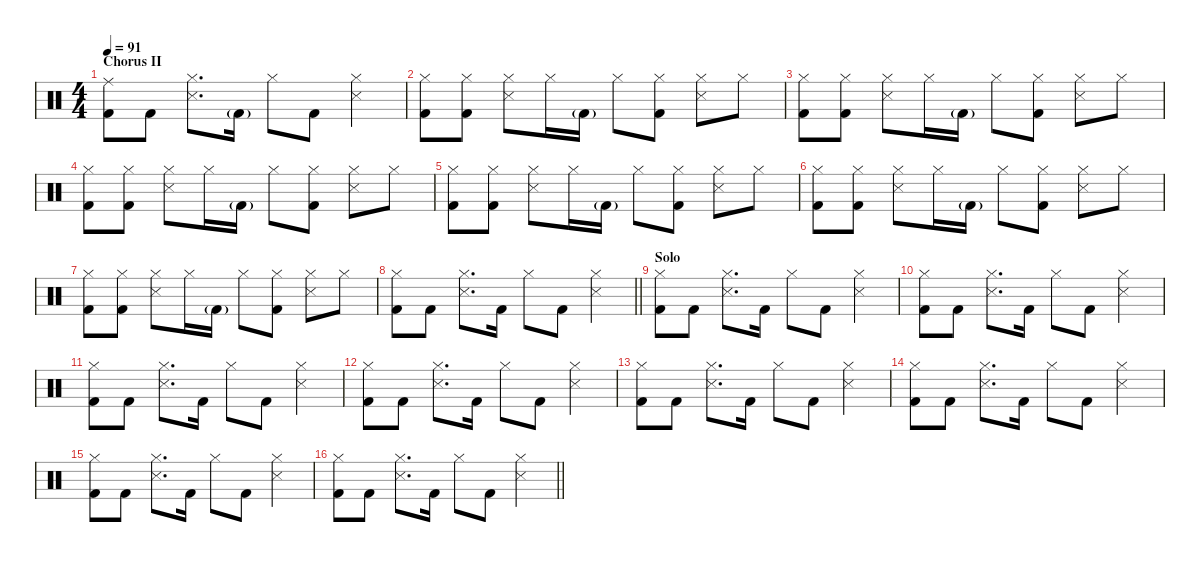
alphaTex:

\defaultSystemsLayout 4
\hideDynamics
\bracketExtendMode nobrackets
\singleTrackTrackNamePolicy hidden
\multiTrackTrackNamePolicy hidden
\otherSystemsTrackNameOrientation horizontal
\track ("Jose Pasillas" "drm.") {defaultSystemsLayout 4 instrument percussion}
\staff {score}
\articulation defaults
\ts (4 4)
\section ("" "Chorus II")
\tempo 91
\clef neutral
\ks c
("Ride (middle)" "Kick (hit) 2").8{dy f beam Down} "Kick (hit) 2".8{beam Down} ("Hi-Hat (closed)" "Snare (side stick) 3").8{d beam Down} "Kick (hit) 2"{g}.16{dy mf beam Down} "Hi-Hat (closed)".8{dy f beam Down} "Kick (hit) 2".8{beam Down} ("Hi-Hat (closed)" "Snare (side stick) 3").4{beam Down} |
("Hi-Hat (closed)" "Kick (hit) 2").8{beam Down} ("Hi-Hat (closed)" "Kick (hit) 2").8{beam Down} ("Hi-Hat (closed)" "Snare (side stick) 3").8{beam Down} "Hi-Hat (closed)".16{beam Down} "Kick (hit) 2"{g}.16{dy mf beam Down} "Hi-Hat (closed)".8{dy f beam Down} ("Hi-Hat (closed)" "Kick (hit) 2").8{beam Down} ("Hi-Hat (closed)" "Snare (side stick) 3").8{beam Down} "Hi-Hat (closed)".8{beam Down} |
("Hi-Hat (closed)" "Kick (hit) 2").8{beam Down} ("Hi-Hat (closed)" "Kick (hit) 2").8{beam Down} ("Hi-Hat (closed)" "Snare (side stick) 3").8{beam Down} "Hi-Hat (closed)".16{beam Down} "Kick (hit) 2"{g}.16{dy mf beam Down} "Hi-Hat (closed)".8{dy f beam Down} ("Hi-Hat (closed)" "Kick (hit) 2").8{beam Down} ("Hi-Hat (closed)" "Snare (side stick) 3").8{beam Down} "Hi-Hat (closed)".8{beam Down} |
("Hi-Hat (closed)" "Kick (hit) 2").8{beam Down} ("Hi-Hat (closed)" "Kick (hit) 2").8{beam Down} ("Hi-Hat (closed)" "Snare (side stick) 3").8{beam Down} "Hi-Hat (closed)".16{beam Down} "Kick (hit) 2"{g}.16{dy mf beam Down} "Hi-Hat (closed)".8{dy f beam Down} ("Hi-Hat (closed)" "Kick (hit) 2").8{beam Down} ("Hi-Hat (closed)" "Snare (side stick) 3").8{beam Down} "Hi-Hat (closed)".8{beam Down} |
("Hi-Hat (closed)" "Kick (hit) 2").8{beam Down} ("Hi-Hat (closed)" "Kick (hit) 2").8{beam Down} ("Hi-Hat (closed)" "Snare (side stick) 3").8{beam Down} "Hi-Hat (closed)".16{beam Down} "Kick (hit) 2"{g}.16{dy mf beam Down} "Hi-Hat (closed)".8{dy f beam Down} ("Hi-Hat (closed)" "Kick (hit) 2").8{beam Down} ("Hi-Hat (closed)" "Snare (side stick) 3").8{beam Down} "Hi-Hat (closed)".8{beam Down} |
("Hi-Hat (closed)" "Kick (hit) 2").8{beam Down} ("Hi-Hat (closed)" "Kick (hit) 2").8{beam Down} ("Hi-Hat (closed)" "Snare (side stick) 3").8{beam Down} "Hi-Hat (closed)".16{beam Down} "Kick (hit) 2"{g}.16{dy mf beam Down} "Hi-Hat (closed)".8{dy f beam Down} ("Hi-Hat (closed)" "Kick (hit) 2").8{beam Down} ("Hi-Hat (closed)" "Snare (side stick) 3").8{beam Down} "Hi-Hat (closed)".8{beam Down} |
("Hi-Hat (closed)" "Kick (hit) 2").8{beam Down} ("Hi-Hat (closed)" "Kick (hit) 2").8{beam Down} ("Hi-Hat (closed)" "Snare (side stick) 3").8{beam Down} "Hi-Hat (closed)".16{beam Down} "Kick (hit) 2"{g}.16{dy mf beam Down} "Hi-Hat (closed)".8{dy f beam Down} ("Hi-Hat (closed)" "Kick (hit) 2").8{beam Down} ("Hi-Hat (closed)" "Snare (side stick) 3").8{beam Down} "Hi-Hat (closed)".8{beam Down} |
\barLineRight lightlight
("Hi-Hat (closed)" "Kick (hit) 2").8{beam Down} "Kick (hit) 2".8{beam Down} ("Hi-Hat (closed)" "Snare (side stick) 3").8{d beam Down} "Kick (hit) 2".16{beam Down} "Hi-Hat (closed)".8{beam Down} "Kick (hit) 2".8{beam Down} ("Hi-Hat (closed)" "Snare (side stick) 3").4{beam Down} |
\section ("" "Solo")
("Hi-Hat (closed)" "Kick (hit) 2").8{beam Down} "Kick (hit) 2".8{beam Down} ("Hi-Hat (closed)" "Snare (side stick) 3").8{d beam Down} "Kick (hit) 2".16{beam Down} "Hi-Hat (closed)".8{beam Down} "Kick (hit) 2".8{beam Down} ("Hi-Hat (closed)" "Snare (side stick) 3").4{beam Down} |
("Hi-Hat (closed)" "Kick (hit) 2").8{beam Down} "Kick (hit) 2".8{beam Down} ("Hi-Hat (closed)" "Snare (side stick) 3").8{d beam Down} "Kick (hit) 2".16{beam Down} "Hi-Hat (closed)".8{beam Down} "Kick (hit) 2".8{beam Down} ("Hi-Hat (closed)" "Snare (side stick) 3").4{beam Down} |
("Hi-Hat (closed)" "Kick (hit) 2").8{beam Down} "Kick (hit) 2".8{beam Down} ("Hi-Hat (closed)" "Snare (side stick) 3").8{d beam Down} "Kick (hit) 2".16{beam Down} "Hi-Hat (closed)".8{beam Down} "Kick (hit) 2".8{beam Down} ("Hi-Hat (closed)" "Snare (side stick) 3").4{beam Down} |
("Hi-Hat (closed)" "Kick (hit) 2").8{beam Down} "Kick (hit) 2".8{beam Down} ("Hi-Hat (closed)" "Snare (side stick) 3").8{d beam Down} "Kick (hit) 2".16{beam Down} "Hi-Hat (closed)".8{beam Down} "Kick (hit) 2".8{beam Down} ("Hi-Hat (closed)" "Snare (side stick) 3").4{beam Down} |
("Hi-Hat (closed)" "Kick (hit) 2").8{beam Down} "Kick (hit) 2".8{beam Down} ("Hi-Hat (closed)" "Snare (side stick) 3").8{d beam Down} "Kick (hit) 2".16{beam Down} "Hi-Hat (closed)".8{beam Down} "Kick (hit) 2".8{beam Down} ("Hi-Hat (closed)" "Snare (side stick) 3").4{beam Down} |
("Hi-Hat (closed)" "Kick (hit) 2").8{beam Down} "Kick (hit) 2".8{beam Down} ("Hi-Hat (closed)" "Snare (side stick) 3").8{d beam Down} "Kick (hit) 2".16{beam Down} "Hi-Hat (closed)".8{beam Down} "Kick (hit) 2".8{beam Down} ("Hi-Hat (closed)" "Snare (side stick) 3").4{beam Down} |
("Hi-Hat (closed)" "Kick (hit) 2").8{beam Down} "Kick (hit) 2".8{beam Down} ("Hi-Hat (closed)" "Snare (side stick) 3").8{d beam Down} "Kick (hit) 2".16{beam Down} "Hi-Hat (closed)".8{beam Down} "Kick (hit) 2".8{beam Down} ("Hi-Hat (closed)" "Snare (side stick) 3").4{beam Down} |
\barLineRight lightlight
("Hi-Hat (closed)" "Kick (hit) 2").8{beam Down} "Kick (hit) 2".8{beam Down} ("Hi-Hat (closed)" "Snare (side stick) 3").8{d beam Down} "Kick (hit) 2".16{beam Down} "Hi-Hat (closed)".8{beam Down} "Kick (hit) 2".8{beam Down} ("Hi-Hat (closed)" "Snare (side stick) 3").4{beam Down}
